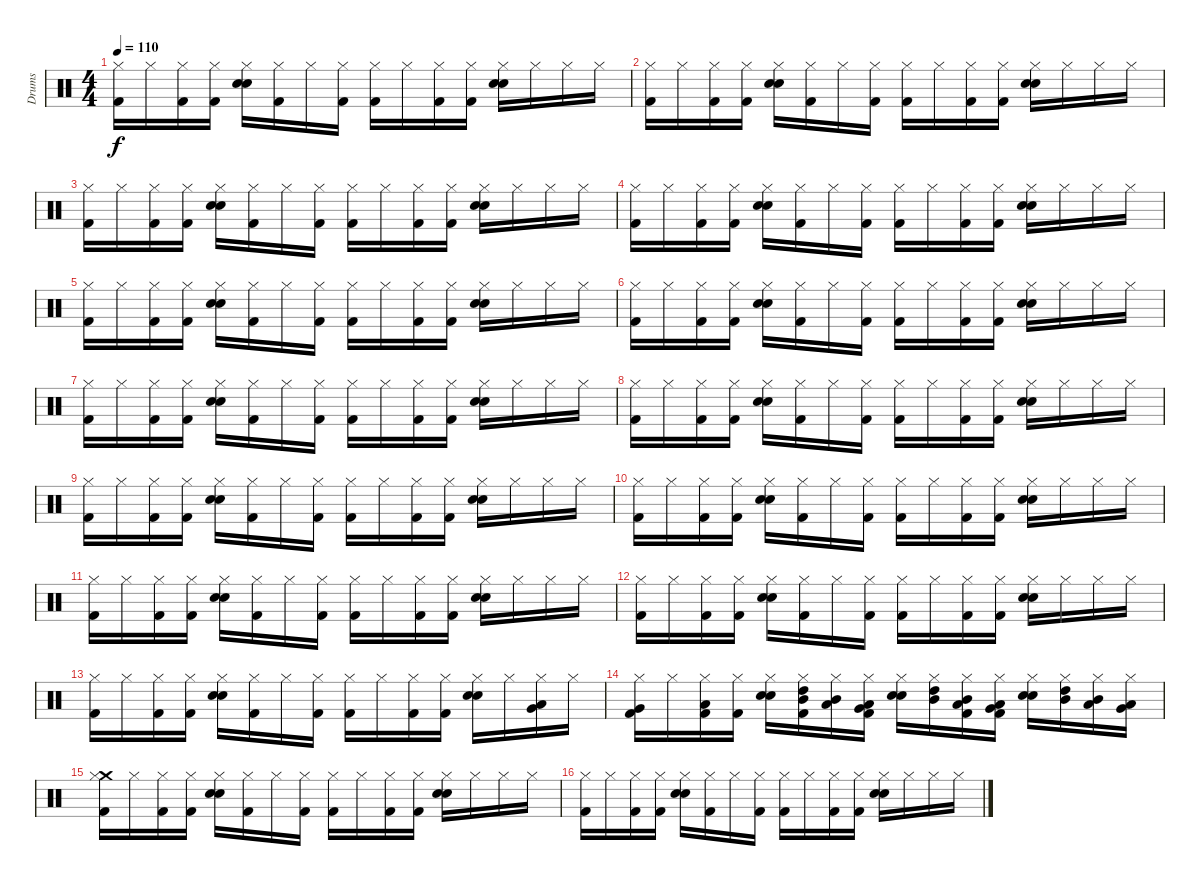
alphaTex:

\track ("Drums" "Drums") {instrument percussion}
\staff {score}
\articulation defaults
\ts (4 4)
\tempo 110
\clef neutral
\ks c
("Hi-Hat (closed)" "Kick (hit) 2").16{dy f} "Hi-Hat (closed)".16 ("Hi-Hat (closed)" "Kick (hit) 2").16 ("Hi-Hat (closed)" "Kick (hit) 2").16 ("Hi-Hat (closed)" "Electric Snare (hit)" "Snare (hit) 2").16 ("Hi-Hat (closed)" "Kick (hit) 2").16 "Hi-Hat (closed)".16 ("Hi-Hat (closed)" "Kick (hit) 2").16 ("Hi-Hat (closed)" "Kick (hit) 2").16 "Hi-Hat (closed)".16 ("Hi-Hat (closed)" "Kick (hit) 2").16 ("Hi-Hat (closed)" "Kick (hit) 2").16 ("Hi-Hat (closed)" "Electric Snare (hit)" "Snare (hit) 2").16 "Hi-Hat (closed)".16 "Hi-Hat (closed)".16 "Hi-Hat (closed)".16 |
("Hi-Hat (closed)" "Kick (hit) 2").16 "Hi-Hat (closed)".16 ("Hi-Hat (closed)" "Kick (hit) 2").16 ("Hi-Hat (closed)" "Kick (hit) 2").16 ("Hi-Hat (closed)" "Electric Snare (hit)" "Snare (hit) 2").16 ("Hi-Hat (closed)" "Kick (hit) 2").16 "Hi-Hat (closed)".16 ("Hi-Hat (closed)" "Kick (hit) 2").16 ("Hi-Hat (closed)" "Kick (hit) 2").16 "Hi-Hat (closed)".16 ("Hi-Hat (closed)" "Kick (hit) 2").16 ("Hi-Hat (closed)" "Kick (hit) 2").16 ("Hi-Hat (closed)" "Electric Snare (hit)" "Snare (hit) 2").16 "Hi-Hat (closed)".16 "Hi-Hat (closed)".16 "Hi-Hat (closed)".16 |
("Hi-Hat (closed)" "Kick (hit) 2").16 "Hi-Hat (closed)".16 ("Hi-Hat (closed)" "Kick (hit) 2").16 ("Hi-Hat (closed)" "Kick (hit) 2").16 ("Hi-Hat (closed)" "Electric Snare (hit)" "Snare (hit) 2").16 ("Hi-Hat (closed)" "Kick (hit) 2").16 "Hi-Hat (closed)".16 ("Hi-Hat (closed)" "Kick (hit) 2").16 ("Hi-Hat (closed)" "Kick (hit) 2").16 "Hi-Hat (closed)".16 ("Hi-Hat (closed)" "Kick (hit) 2").16 ("Hi-Hat (closed)" "Kick (hit) 2").16 ("Hi-Hat (closed)" "Electric Snare (hit)" "Snare (hit) 2").16 "Hi-Hat (closed)".16 "Hi-Hat (closed)".16 "Hi-Hat (closed)".16 |
("Kick (hit) 2" "Hi-Hat (closed)").16 "Hi-Hat (closed)".16 ("Kick (hit) 2" "Hi-Hat (closed)").16 ("Kick (hit) 2" "Hi-Hat (closed)").16 ("Electric Snare (hit)" "Snare (hit) 2" "Hi-Hat (closed)").16 ("Kick (hit) 2" "Hi-Hat (closed)").16 "Hi-Hat (closed)".16 ("Kick (hit) 2" "Hi-Hat (closed)").16 ("Kick (hit) 2" "Hi-Hat (closed)").16 "Hi-Hat (closed)".16 ("Kick (hit) 2" "Hi-Hat (closed)").16 ("Kick (hit) 2" "Hi-Hat (closed)").16 ("Electric Snare (hit)" "Snare (hit) 2" "Hi-Hat (closed)").16 "Hi-Hat (closed)".16 "Hi-Hat (closed)".16 "Hi-Hat (closed)".16 |
("Kick (hit) 2" "Hi-Hat (closed)").16 "Hi-Hat (closed)".16 ("Kick (hit) 2" "Hi-Hat (closed)").16 ("Kick (hit) 2" "Hi-Hat (closed)").16 ("Electric Snare (hit)" "Snare (hit) 2" "Hi-Hat (closed)").16 ("Kick (hit) 2" "Hi-Hat (closed)").16 "Hi-Hat (closed)".16 ("Kick (hit) 2" "Hi-Hat (closed)").16 ("Kick (hit) 2" "Hi-Hat (closed)").16 "Hi-Hat (closed)".16 ("Kick (hit) 2" "Hi-Hat (closed)").16 ("Kick (hit) 2" "Hi-Hat (closed)").16 ("Electric Snare (hit)" "Snare (hit) 2" "Hi-Hat (closed)").16 "Hi-Hat (closed)".16 "Hi-Hat (closed)".16 "Hi-Hat (closed)".16 |
("Hi-Hat (closed)" "Kick (hit) 2").16 "Hi-Hat (closed)".16 ("Hi-Hat (closed)" "Kick (hit) 2").16 ("Hi-Hat (closed)" "Kick (hit) 2").16 ("Hi-Hat (closed)" "Electric Snare (hit)" "Snare (hit) 2").16 ("Hi-Hat (closed)" "Kick (hit) 2").16 "Hi-Hat (closed)".16 ("Hi-Hat (closed)" "Kick (hit) 2").16 ("Hi-Hat (closed)" "Kick (hit) 2").16 "Hi-Hat (closed)".16 ("Hi-Hat (closed)" "Kick (hit) 2").16 ("Hi-Hat (closed)" "Kick (hit) 2").16 ("Hi-Hat (closed)" "Electric Snare (hit)" "Snare (hit) 2").16 "Hi-Hat (closed)".16 "Hi-Hat (closed)".16 "Hi-Hat (closed)".16 |
("Kick (hit) 2" "Hi-Hat (closed)").16 "Hi-Hat (closed)".16 ("Kick (hit) 2" "Hi-Hat (closed)").16 ("Kick (hit) 2" "Hi-Hat (closed)").16 ("Electric Snare (hit)" "Snare (hit) 2" "Hi-Hat (closed)").16 ("Kick (hit) 2" "Hi-Hat (closed)").16 "Hi-Hat (closed)".16 ("Kick (hit) 2" "Hi-Hat (closed)").16 ("Kick (hit) 2" "Hi-Hat (closed)").16 "Hi-Hat (closed)".16 ("Kick (hit) 2" "Hi-Hat (closed)").16 ("Kick (hit) 2" "Hi-Hat (closed)").16 ("Electric Snare (hit)" "Snare (hit) 2" "Hi-Hat (closed)").16 "Hi-Hat (closed)".16 "Hi-Hat (closed)".16 "Hi-Hat (closed)".16 |
("Kick (hit) 2" "Hi-Hat (closed)").16 "Hi-Hat (closed)".16 ("Kick (hit) 2" "Hi-Hat (closed)").16 ("Kick (hit) 2" "Hi-Hat (closed)").16 ("Electric Snare (hit)" "Snare (hit) 2" "Hi-Hat (closed)").16 ("Kick (hit) 2" "Hi-Hat (closed)").16 "Hi-Hat (closed)".16 ("Kick (hit) 2" "Hi-Hat (closed)").16 ("Kick (hit) 2" "Hi-Hat (closed)").16 "Hi-Hat (closed)".16 ("Kick (hit) 2" "Hi-Hat (closed)").16 ("Kick (hit) 2" "Hi-Hat (closed)").16 ("Electric Snare (hit)" "Snare (hit) 2" "Hi-Hat (closed)").16 "Hi-Hat (closed)".16 "Hi-Hat (closed)".16 "Hi-Hat (closed)".16 |
("Hi-Hat (closed)" "Kick (hit) 2").16 "Hi-Hat (closed)".16 ("Hi-Hat (closed)" "Kick (hit) 2").16 ("Hi-Hat (closed)" "Kick (hit) 2").16 ("Hi-Hat (closed)" "Electric Snare (hit)" "Snare (hit) 2").16 ("Hi-Hat (closed)" "Kick (hit) 2").16 "Hi-Hat (closed)".16 ("Hi-Hat (closed)" "Kick (hit) 2").16 ("Hi-Hat (closed)" "Kick (hit) 2").16 "Hi-Hat (closed)".16 ("Hi-Hat (closed)" "Kick (hit) 2").16 ("Hi-Hat (closed)" "Kick (hit) 2").16 ("Hi-Hat (closed)" "Electric Snare (hit)" "Snare (hit) 2").16 "Hi-Hat (closed)".16 "Hi-Hat (closed)".16 "Hi-Hat (closed)".16 |
("Kick (hit) 2" "Hi-Hat (closed)").16 "Hi-Hat (closed)".16 ("Kick (hit) 2" "Hi-Hat (closed)").16 ("Kick (hit) 2" "Hi-Hat (closed)").16 ("Electric Snare (hit)" "Snare (hit) 2" "Hi-Hat (closed)").16 ("Kick (hit) 2" "Hi-Hat (closed)").16 "Hi-Hat (closed)".16 ("Kick (hit) 2" "Hi-Hat (closed)").16 ("Kick (hit) 2" "Hi-Hat (closed)").16 "Hi-Hat (closed)".16 ("Kick (hit) 2" "Hi-Hat (closed)").16 ("Kick (hit) 2" "Hi-Hat (closed)").16 ("Electric Snare (hit)" "Snare (hit) 2" "Hi-Hat (closed)").16 "Hi-Hat (closed)".16 "Hi-Hat (closed)".16 "Hi-Hat (closed)".16 |
("Kick (hit) 2" "Hi-Hat (closed)").16 "Hi-Hat (closed)".16 ("Kick (hit) 2" "Hi-Hat (closed)").16 ("Kick (hit) 2" "Hi-Hat (closed)").16 ("Electric Snare (hit)" "Snare (hit) 2" "Hi-Hat (closed)").16 ("Kick (hit) 2" "Hi-Hat (closed)").16 "Hi-Hat (closed)".16 ("Kick (hit) 2" "Hi-Hat (closed)").16 ("Kick (hit) 2" "Hi-Hat (closed)").16 "Hi-Hat (closed)".16 ("Kick (hit) 2" "Hi-Hat (closed)").16 ("Kick (hit) 2" "Hi-Hat (closed)").16 ("Electric Snare (hit)" "Snare (hit) 2" "Hi-Hat (closed)").16 "Hi-Hat (closed)".16 "Hi-Hat (closed)".16 "Hi-Hat (closed)".16 |
("Kick (hit) 2" "Hi-Hat (closed)").16 "Hi-Hat (closed)".16 ("Kick (hit) 2" "Hi-Hat (closed)").16 ("Kick (hit) 2" "Hi-Hat (closed)").16 ("Electric Snare (hit)" "Snare (hit) 2" "Hi-Hat (closed)").16 ("Kick (hit) 2" "Hi-Hat (closed)").16 "Hi-Hat (closed)".16 ("Kick (hit) 2" "Hi-Hat (closed)").16 ("Kick (hit) 2" "Hi-Hat (closed)").16 "Hi-Hat (closed)".16 ("Kick (hit) 2" "Hi-Hat (closed)").16 ("Kick (hit) 2" "Hi-Hat (closed)").16 ("Electric Snare (hit)" "Snare (hit) 2" "Hi-Hat (closed)").16 "Hi-Hat (closed)".16 "Hi-Hat (closed)".16 "Hi-Hat (closed)".16 |
("Kick (hit) 2" "Hi-Hat (closed)").16 "Hi-Hat (closed)".16 ("Kick (hit) 2" "Hi-Hat (closed)").16 ("Kick (hit) 2" "Hi-Hat (closed)").16 ("Electric Snare (hit)" "Snare (hit) 2" "Hi-Hat (closed)").16 ("Kick (hit) 2" "Hi-Hat (closed)").16 "Hi-Hat (closed)".16 ("Kick (hit) 2" "Hi-Hat (closed)").16 ("Kick (hit) 2" "Hi-Hat (closed)").16 "Hi-Hat (closed)".16 ("Kick (hit) 2" "Hi-Hat (closed)").16 ("Kick (hit) 2" "Hi-Hat (closed)").16 ("Electric Snare (hit)" "Snare (hit) 2" "Hi-Hat (closed)").16 "Hi-Hat (closed)".16 ("Low Tom (hit)" "Very Low Tom (hit)" "Hi-Hat (closed)").16 "Hi-Hat (closed)".16 |
("Very Low Tom (hit)" "Kick (hit) 2" "Hi-Hat (closed)").16 "Hi-Hat (closed)".16 ("Low Floor Tom (hit)" "Kick (hit) 2" "Hi-Hat (closed)").16 ("Kick (hit) 2" "Hi-Hat (closed)").16 ("Electric Snare (hit)" "Snare (hit) 2" "Hi-Hat (closed)").16 ("Mid Tom (hit)" "High Tom (hit)" "Kick (hit) 2" "Hi-Hat (closed)").16 ("Low Tom (hit)" "Mid Tom (hit)" "Hi-Hat (closed)").16 ("Low Floor Tom (hit)" "Very Low Tom (hit)" "Kick (hit) 2" "Hi-Hat (closed)").16 ("Electric Snare (hit)" "Snare (hit) 2" "Hi-Hat (closed)").16 ("Mid Tom (hit)" "High Tom (hit)" "Hi-Hat (closed)").16 ("Low Tom (hit)" "Mid Tom (hit)" "Kick (hit) 2" "Hi-Hat (closed)").16 ("Very Low Tom (hit)" "Low Tom (hit)" "Kick (hit) 2" "Hi-Hat (closed)").16 ("Electric Snare (hit)" "Snare (hit) 2" "Hi-Hat (closed)").16 ("Mid Tom (hit)" "High Tom (hit)" "Hi-Hat (closed)").16 ("Low Tom (hit)" "Mid Tom (hit)" "Hi-Hat (closed)").16 ("Very Low Tom (hit)" "Low Tom (hit)" "Hi-Hat (closed)").16 |
("Crash medium (hit)" "Kick (hit) 2" "Hi-Hat (closed)").16 "Hi-Hat (closed)".16 ("Kick (hit) 2" "Hi-Hat (closed)").16 ("Kick (hit) 2" "Hi-Hat (closed)").16 ("Electric Snare (hit)" "Snare (hit) 2" "Hi-Hat (closed)").16 ("Kick (hit) 2" "Hi-Hat (closed)").16 "Hi-Hat (closed)".16 ("Kick (hit) 2" "Hi-Hat (closed)").16 ("Kick (hit) 2" "Hi-Hat (closed)").16 "Hi-Hat (closed)".16 ("Kick (hit) 2" "Hi-Hat (closed)").16 ("Kick (hit) 2" "Hi-Hat (closed)").16 ("Electric Snare (hit)" "Snare (hit) 2" "Hi-Hat (closed)").16 "Hi-Hat (closed)".16 "Hi-Hat (closed)".16 "Hi-Hat (closed)".16 |
("Kick (hit) 2" "Hi-Hat (closed)").16 "Hi-Hat (closed)".16 ("Kick (hit) 2" "Hi-Hat (closed)").16 ("Kick (hit) 2" "Hi-Hat (closed)").16 ("Electric Snare (hit)" "Snare (hit) 2" "Hi-Hat (closed)").16 ("Kick (hit) 2" "Hi-Hat (closed)").16 "Hi-Hat (closed)".16 ("Kick (hit) 2" "Hi-Hat (closed)").16 ("Kick (hit) 2" "Hi-Hat (closed)").16 "Hi-Hat (closed)".16 ("Kick (hit) 2" "Hi-Hat (closed)").16 ("Kick (hit) 2" "Hi-Hat (closed)").16 ("Electric Snare (hit)" "Snare (hit) 2" "Hi-Hat (closed)").16 "Hi-Hat (closed)".16 "Hi-Hat (closed)".16 "Hi-Hat (closed)".16
